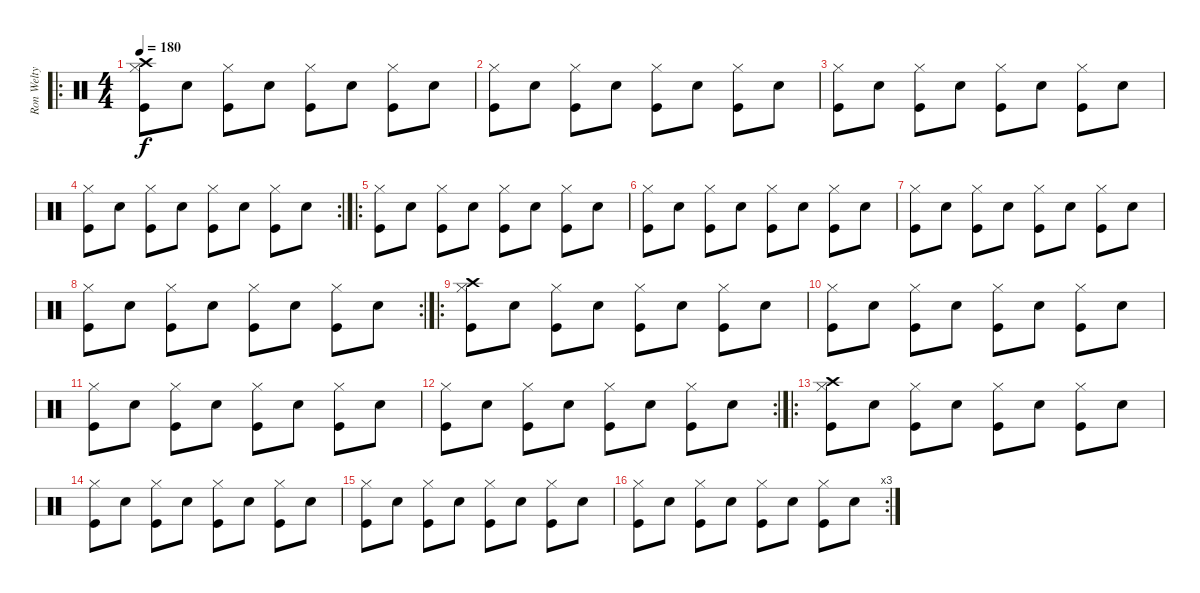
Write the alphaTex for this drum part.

\track ("Ron Welty (Drums)" "Ron Welty ") {instrument percussion}
\staff {score}
\articulation defaults
\ro
\ts (4 4)
\tempo 180
\clef neutral
\ks c
("Crash high (hit)" "Hi-Hat (closed)" "Kick (hit)").8{dy f} "Electric Snare (hit)".8 ("Hi-Hat (closed)" "Kick (hit)").8 "Electric Snare (hit)".8 ("Hi-Hat (closed)" "Kick (hit)").8 "Electric Snare (hit)".8 ("Hi-Hat (closed)" "Kick (hit)").8 "Electric Snare (hit)".8 |
("Hi-Hat (closed)" "Kick (hit)").8 "Electric Snare (hit)".8 ("Hi-Hat (closed)" "Kick (hit)").8 "Electric Snare (hit)".8 ("Hi-Hat (closed)" "Kick (hit)").8 "Electric Snare (hit)".8 ("Hi-Hat (closed)" "Kick (hit)").8 "Electric Snare (hit)".8 |
("Hi-Hat (closed)" "Kick (hit)").8 "Electric Snare (hit)".8 ("Hi-Hat (closed)" "Kick (hit)").8 "Electric Snare (hit)".8 ("Hi-Hat (closed)" "Kick (hit)").8 "Electric Snare (hit)".8 ("Hi-Hat (closed)" "Kick (hit)").8 "Electric Snare (hit)".8 |
\rc 2
("Hi-Hat (closed)" "Kick (hit)").8 "Electric Snare (hit)".8 ("Hi-Hat (closed)" "Kick (hit)").8 "Electric Snare (hit)".8 ("Hi-Hat (closed)" "Kick (hit)").8 "Electric Snare (hit)".8 ("Hi-Hat (closed)" "Kick (hit)").8 "Electric Snare (hit)".8 |
\ro
("Hi-Hat (closed)" "Kick (hit)").8 "Electric Snare (hit)".8 ("Hi-Hat (closed)" "Kick (hit)").8 "Electric Snare (hit)".8 ("Hi-Hat (closed)" "Kick (hit)").8 "Electric Snare (hit)".8 ("Hi-Hat (closed)" "Kick (hit)").8 "Electric Snare (hit)".8 |
("Hi-Hat (closed)" "Kick (hit)").8 "Electric Snare (hit)".8 ("Hi-Hat (closed)" "Kick (hit)").8 "Electric Snare (hit)".8 ("Hi-Hat (closed)" "Kick (hit)").8 "Electric Snare (hit)".8 ("Hi-Hat (closed)" "Kick (hit)").8 "Electric Snare (hit)".8 |
("Hi-Hat (closed)" "Kick (hit)").8 "Electric Snare (hit)".8 ("Hi-Hat (closed)" "Kick (hit)").8 "Electric Snare (hit)".8 ("Hi-Hat (closed)" "Kick (hit)").8 "Electric Snare (hit)".8 ("Hi-Hat (closed)" "Kick (hit)").8 "Electric Snare (hit)".8 |
\rc 2
("Hi-Hat (closed)" "Kick (hit)").8 "Electric Snare (hit)".8 ("Hi-Hat (closed)" "Kick (hit)").8 "Electric Snare (hit)".8 ("Hi-Hat (closed)" "Kick (hit)").8 "Electric Snare (hit)".8 ("Hi-Hat (closed)" "Kick (hit)").8 "Electric Snare (hit)".8 |
\ro
("Crash high (hit)" "Hi-Hat (closed)" "Kick (hit)").8 "Electric Snare (hit)".8 ("Hi-Hat (closed)" "Kick (hit)").8 "Electric Snare (hit)".8 ("Hi-Hat (closed)" "Kick (hit)").8 "Electric Snare (hit)".8 ("Hi-Hat (closed)" "Kick (hit)").8 "Electric Snare (hit)".8 |
("Hi-Hat (closed)" "Kick (hit)").8 "Electric Snare (hit)".8 ("Hi-Hat (closed)" "Kick (hit)").8 "Electric Snare (hit)".8 ("Hi-Hat (closed)" "Kick (hit)").8 "Electric Snare (hit)".8 ("Hi-Hat (closed)" "Kick (hit)").8 "Electric Snare (hit)".8 |
("Hi-Hat (closed)" "Kick (hit)").8 "Electric Snare (hit)".8 ("Hi-Hat (closed)" "Kick (hit)").8 "Electric Snare (hit)".8 ("Hi-Hat (closed)" "Kick (hit)").8 "Electric Snare (hit)".8 ("Hi-Hat (closed)" "Kick (hit)").8 "Electric Snare (hit)".8 |
\rc 2
("Hi-Hat (closed)" "Kick (hit)").8 "Electric Snare (hit)".8 ("Hi-Hat (closed)" "Kick (hit)").8 "Electric Snare (hit)".8 ("Hi-Hat (closed)" "Kick (hit)").8 "Electric Snare (hit)".8 ("Hi-Hat (closed)" "Kick (hit)").8 "Electric Snare (hit)".8 |
\ro
("Crash high (hit)" "Hi-Hat (closed)" "Kick (hit)").8 "Electric Snare (hit)".8 ("Hi-Hat (closed)" "Kick (hit)").8 "Electric Snare (hit)".8 ("Hi-Hat (closed)" "Kick (hit)").8 "Electric Snare (hit)".8 ("Hi-Hat (closed)" "Kick (hit)").8 "Electric Snare (hit)".8 |
("Hi-Hat (closed)" "Kick (hit)").8 "Electric Snare (hit)".8 ("Hi-Hat (closed)" "Kick (hit)").8 "Electric Snare (hit)".8 ("Hi-Hat (closed)" "Kick (hit)").8 "Electric Snare (hit)".8 ("Hi-Hat (closed)" "Kick (hit)").8 "Electric Snare (hit)".8 |
("Hi-Hat (closed)" "Kick (hit)").8 "Electric Snare (hit)".8 ("Hi-Hat (closed)" "Kick (hit)").8 "Electric Snare (hit)".8 ("Hi-Hat (closed)" "Kick (hit)").8 "Electric Snare (hit)".8 ("Hi-Hat (closed)" "Kick (hit)").8 "Electric Snare (hit)".8 |
\rc 3
("Hi-Hat (closed)" "Kick (hit)").8 "Electric Snare (hit)".8 ("Hi-Hat (closed)" "Kick (hit)").8 "Electric Snare (hit)".8 ("Hi-Hat (closed)" "Kick (hit)").8 "Electric Snare (hit)".8 ("Hi-Hat (closed)" "Kick (hit)").8 "Electric Snare (hit)".8
